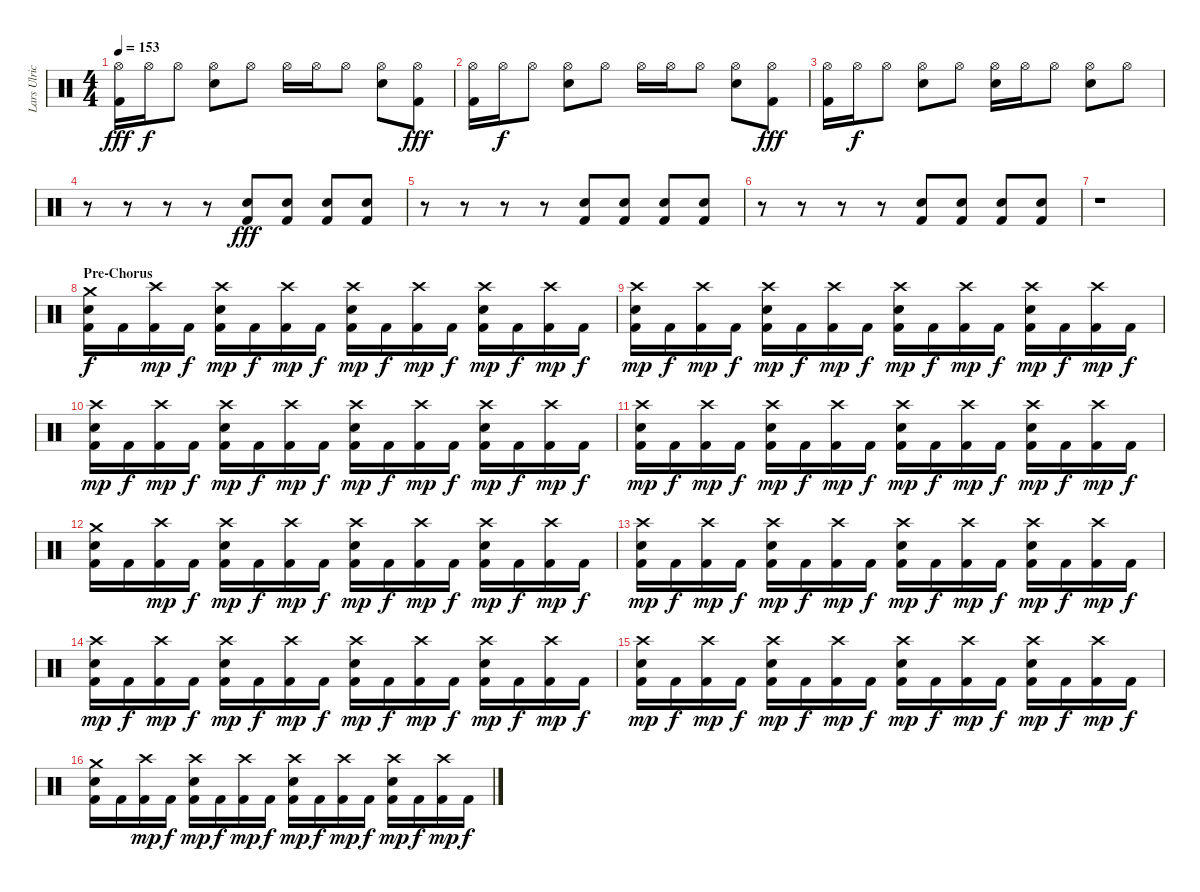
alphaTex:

\track ("Lars Ulrich (Drums)" "Lars Ulric") {instrument percussion}
\staff {score}
\articulation defaults
\ts (4 4)
\tempo 153
\clef neutral
\ks c
("Hi-Hat (open)" "Kick (hit) 2").16{dy fff} "Hi-Hat (open)".16{dy f} "Hi-Hat (open)".8 ("Hi-Hat (open)" "Electric Snare (hit)").8 "Hi-Hat (open)".8 "Hi-Hat (open)".16 "Hi-Hat (open)".16 "Hi-Hat (open)".8 ("Hi-Hat (open)" "Electric Snare (hit)").8 ("Hi-Hat (open)" "Kick (hit) 2").8{dy fff} |
("Hi-Hat (open)" "Kick (hit) 2").16 "Hi-Hat (open)".16{dy f} "Hi-Hat (open)".8 ("Hi-Hat (open)" "Electric Snare (hit)").8 "Hi-Hat (open)".8 "Hi-Hat (open)".16 "Hi-Hat (open)".16 "Hi-Hat (open)".8 ("Hi-Hat (open)" "Electric Snare (hit)").8 ("Hi-Hat (open)" "Kick (hit) 2").8{dy fff} |
("Hi-Hat (open)" "Kick (hit) 2").16 "Hi-Hat (open)".16{dy f} "Hi-Hat (open)".8 ("Hi-Hat (open)" "Electric Snare (hit)").8 "Hi-Hat (open)".8 ("Hi-Hat (open)" "Electric Snare (hit)").16 "Hi-Hat (open)".16 "Hi-Hat (open)".8 ("Hi-Hat (open)" "Electric Snare (hit)").8 "Hi-Hat (open)".8 |
r.8 r.8 r.8 r.8 ("Electric Snare (hit)" "Kick (hit) 2").8{dy fff} ("Electric Snare (hit)" "Kick (hit) 2").8 ("Electric Snare (hit)" "Kick (hit) 2").8 ("Electric Snare (hit)" "Kick (hit) 2").8 |
r.8 r.8 r.8 r.8 ("Electric Snare (hit)" "Kick (hit) 2").8 ("Electric Snare (hit)" "Kick (hit) 2").8 ("Electric Snare (hit)" "Kick (hit) 2").8 ("Electric Snare (hit)" "Kick (hit) 2").8 |
r.8 r.8 r.8 r.8 ("Electric Snare (hit)" "Kick (hit) 2").8 ("Electric Snare (hit)" "Kick (hit) 2").8 ("Electric Snare (hit)" "Kick (hit) 2").8 ("Electric Snare (hit)" "Kick (hit) 2").8 |
r.1 |
\section ("" "Pre-Chorus")
("Crash medium (hit)" "Electric Snare (hit)" "Kick (hit) 2").16{dy f} "Kick (hit) 2".16 ("Crash high (hit)" "Kick (hit) 2").16{dy mp} "Kick (hit) 2".16{dy f} ("Crash high (hit)" "Electric Snare (hit)" "Kick (hit) 2").16{dy mp} "Kick (hit) 2".16{dy f} ("Crash high (hit)" "Kick (hit) 2").16{dy mp} "Kick (hit) 2".16{dy f} ("Crash high (hit)" "Electric Snare (hit)" "Kick (hit) 2").16{dy mp} "Kick (hit) 2".16{dy f} ("Crash high (hit)" "Kick (hit) 2").16{dy mp} "Kick (hit) 2".16{dy f} ("Crash high (hit)" "Electric Snare (hit)" "Kick (hit) 2").16{dy mp} "Kick (hit) 2".16{dy f} ("Crash high (hit)" "Kick (hit) 2").16{dy mp} "Kick (hit) 2".16{dy f} |
("Crash high (hit)" "Electric Snare (hit)" "Kick (hit) 2").16{dy mp} "Kick (hit) 2".16{dy f} ("Crash high (hit)" "Kick (hit) 2").16{dy mp} "Kick (hit) 2".16{dy f} ("Crash high (hit)" "Electric Snare (hit)" "Kick (hit) 2").16{dy mp} "Kick (hit) 2".16{dy f} ("Crash high (hit)" "Kick (hit) 2").16{dy mp} "Kick (hit) 2".16{dy f} ("Crash high (hit)" "Electric Snare (hit)" "Kick (hit) 2").16{dy mp} "Kick (hit) 2".16{dy f} ("Crash high (hit)" "Kick (hit) 2").16{dy mp} "Kick (hit) 2".16{dy f} ("Crash high (hit)" "Electric Snare (hit)" "Kick (hit) 2").16{dy mp} "Kick (hit) 2".16{dy f} ("Crash high (hit)" "Kick (hit) 2").16{dy mp} "Kick (hit) 2".16{dy f} |
("Crash high (hit)" "Electric Snare (hit)" "Kick (hit) 2").16{dy mp} "Kick (hit) 2".16{dy f} ("Crash high (hit)" "Kick (hit) 2").16{dy mp} "Kick (hit) 2".16{dy f} ("Crash high (hit)" "Electric Snare (hit)" "Kick (hit) 2").16{dy mp} "Kick (hit) 2".16{dy f} ("Crash high (hit)" "Kick (hit) 2").16{dy mp} "Kick (hit) 2".16{dy f} ("Crash high (hit)" "Electric Snare (hit)" "Kick (hit) 2").16{dy mp} "Kick (hit) 2".16{dy f} ("Crash high (hit)" "Kick (hit) 2").16{dy mp} "Kick (hit) 2".16{dy f} ("Crash high (hit)" "Electric Snare (hit)" "Kick (hit) 2").16{dy mp} "Kick (hit) 2".16{dy f} ("Crash high (hit)" "Kick (hit) 2").16{dy mp} "Kick (hit) 2".16{dy f} |
("Crash high (hit)" "Electric Snare (hit)" "Kick (hit) 2").16{dy mp} "Kick (hit) 2".16{dy f} ("Crash high (hit)" "Kick (hit) 2").16{dy mp} "Kick (hit) 2".16{dy f} ("Crash high (hit)" "Electric Snare (hit)" "Kick (hit) 2").16{dy mp} "Kick (hit) 2".16{dy f} ("Crash high (hit)" "Kick (hit) 2").16{dy mp} "Kick (hit) 2".16{dy f} ("Crash high (hit)" "Electric Snare (hit)" "Kick (hit) 2").16{dy mp} "Kick (hit) 2".16{dy f} ("Crash high (hit)" "Kick (hit) 2").16{dy mp} "Kick (hit) 2".16{dy f} ("Crash high (hit)" "Electric Snare (hit)" "Kick (hit) 2").16{dy mp} "Kick (hit) 2".16{dy f} ("Crash high (hit)" "Kick (hit) 2").16{dy mp} "Kick (hit) 2".16{dy f} |
("Crash medium (hit)" "Electric Snare (hit)" "Kick (hit) 2").16 "Kick (hit) 2".16 ("Crash high (hit)" "Kick (hit) 2").16{dy mp} "Kick (hit) 2".16{dy f} ("Crash high (hit)" "Electric Snare (hit)" "Kick (hit) 2").16{dy mp} "Kick (hit) 2".16{dy f} ("Crash high (hit)" "Kick (hit) 2").16{dy mp} "Kick (hit) 2".16{dy f} ("Crash high (hit)" "Electric Snare (hit)" "Kick (hit) 2").16{dy mp} "Kick (hit) 2".16{dy f} ("Crash high (hit)" "Kick (hit) 2").16{dy mp} "Kick (hit) 2".16{dy f} ("Crash high (hit)" "Electric Snare (hit)" "Kick (hit) 2").16{dy mp} "Kick (hit) 2".16{dy f} ("Crash high (hit)" "Kick (hit) 2").16{dy mp} "Kick (hit) 2".16{dy f} |
("Crash high (hit)" "Electric Snare (hit)" "Kick (hit) 2").16{dy mp} "Kick (hit) 2".16{dy f} ("Crash high (hit)" "Kick (hit) 2").16{dy mp} "Kick (hit) 2".16{dy f} ("Crash high (hit)" "Electric Snare (hit)" "Kick (hit) 2").16{dy mp} "Kick (hit) 2".16{dy f} ("Crash high (hit)" "Kick (hit) 2").16{dy mp} "Kick (hit) 2".16{dy f} ("Crash high (hit)" "Electric Snare (hit)" "Kick (hit) 2").16{dy mp} "Kick (hit) 2".16{dy f} ("Crash high (hit)" "Kick (hit) 2").16{dy mp} "Kick (hit) 2".16{dy f} ("Crash high (hit)" "Electric Snare (hit)" "Kick (hit) 2").16{dy mp} "Kick (hit) 2".16{dy f} ("Crash high (hit)" "Kick (hit) 2").16{dy mp} "Kick (hit) 2".16{dy f} |
("Crash high (hit)" "Electric Snare (hit)" "Kick (hit) 2").16{dy mp} "Kick (hit) 2".16{dy f} ("Crash high (hit)" "Kick (hit) 2").16{dy mp} "Kick (hit) 2".16{dy f} ("Crash high (hit)" "Electric Snare (hit)" "Kick (hit) 2").16{dy mp} "Kick (hit) 2".16{dy f} ("Crash high (hit)" "Kick (hit) 2").16{dy mp} "Kick (hit) 2".16{dy f} ("Crash high (hit)" "Electric Snare (hit)" "Kick (hit) 2").16{dy mp} "Kick (hit) 2".16{dy f} ("Crash high (hit)" "Kick (hit) 2").16{dy mp} "Kick (hit) 2".16{dy f} ("Crash high (hit)" "Electric Snare (hit)" "Kick (hit) 2").16{dy mp} "Kick (hit) 2".16{dy f} ("Crash high (hit)" "Kick (hit) 2").16{dy mp} "Kick (hit) 2".16{dy f} |
("Crash high (hit)" "Electric Snare (hit)" "Kick (hit) 2").16{dy mp} "Kick (hit) 2".16{dy f} ("Crash high (hit)" "Kick (hit) 2").16{dy mp} "Kick (hit) 2".16{dy f} ("Crash high (hit)" "Electric Snare (hit)" "Kick (hit) 2").16{dy mp} "Kick (hit) 2".16{dy f} ("Crash high (hit)" "Kick (hit) 2").16{dy mp} "Kick (hit) 2".16{dy f} ("Crash high (hit)" "Electric Snare (hit)" "Kick (hit) 2").16{dy mp} "Kick (hit) 2".16{dy f} ("Crash high (hit)" "Kick (hit) 2").16{dy mp} "Kick (hit) 2".16{dy f} ("Crash high (hit)" "Electric Snare (hit)" "Kick (hit) 2").16{dy mp} "Kick (hit) 2".16{dy f} ("Crash high (hit)" "Kick (hit) 2").16{dy mp} "Kick (hit) 2".16{dy f} |
("Crash medium (hit)" "Electric Snare (hit)" "Kick (hit) 2").16 "Kick (hit) 2".16 ("Crash high (hit)" "Kick (hit) 2").16{dy mp} "Kick (hit) 2".16{dy f} ("Crash high (hit)" "Electric Snare (hit)" "Kick (hit) 2").16{dy mp} "Kick (hit) 2".16{dy f} ("Crash high (hit)" "Kick (hit) 2").16{dy mp} "Kick (hit) 2".16{dy f} ("Crash high (hit)" "Electric Snare (hit)" "Kick (hit) 2").16{dy mp} "Kick (hit) 2".16{dy f} ("Crash high (hit)" "Kick (hit) 2").16{dy mp} "Kick (hit) 2".16{dy f} ("Crash high (hit)" "Electric Snare (hit)" "Kick (hit) 2").16{dy mp} "Kick (hit) 2".16{dy f} ("Crash high (hit)" "Kick (hit) 2").16{dy mp} "Kick (hit) 2".16{dy f}
